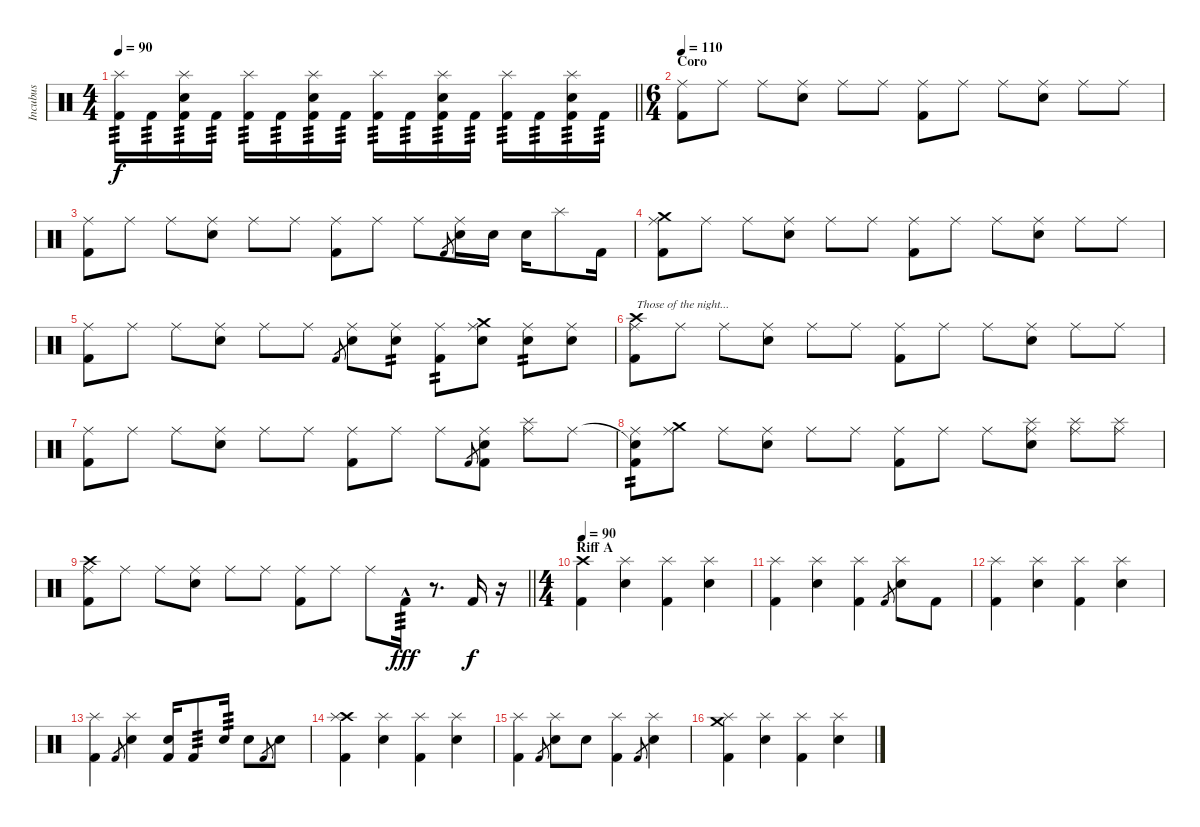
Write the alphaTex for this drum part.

\track ("Incubus" "Incubus") {instrument percussion}
\staff {score}
\articulation defaults
\ts (4 4)
\tempo 90
\clef neutral
\barLineRight lightlight
\ks c
("Splash (hit)" "Kick (hit) 2").16{tp 3 dy f} "Kick (hit) 2".16{tp 3} ("Splash (hit)" "Snare (hit) 2" "Kick (hit) 2").16{tp 3} "Kick (hit) 2".16{tp 3} ("Splash (hit)" "Kick (hit) 2").16{tp 3} "Kick (hit) 2".16{tp 3} ("Splash (hit)" "Snare (hit) 2" "Kick (hit) 2").16{tp 3} "Kick (hit) 2".16{tp 3} ("Splash (hit)" "Kick (hit) 2").16{tp 3} "Kick (hit) 2".16{tp 3} ("Splash (hit)" "Snare (hit) 2" "Kick (hit) 2").16{tp 3} "Kick (hit) 2".16{tp 3} ("Splash (hit)" "Kick (hit) 2").16{tp 3} "Kick (hit) 2".16{tp 3} ("Splash (hit)" "Snare (hit) 2" "Kick (hit) 2").16{tp 3} "Kick (hit) 2".16{tp 3} |
\ts (6 4)
\section ("" "Coro")
\tempo 110
("Ride (middle)" "Kick (hit) 2").8 "Ride (middle)".8 "Ride (middle)".8 ("Ride (middle)" "Snare (hit) 2").8 "Ride (middle)".8 "Ride (middle)".8 ("Ride (middle)" "Kick (hit) 2").8 "Ride (middle)".8 "Ride (middle)".8 ("Ride (middle)" "Snare (hit) 2").8 "Ride (middle)".8 "Ride (middle)".8 |
("Ride (middle)" "Kick (hit) 2").8 "Ride (middle)".8 "Ride (middle)".8 ("Ride (middle)" "Snare (hit) 2").8 "Ride (middle)".8 "Ride (middle)".8 ("Ride (middle)" "Kick (hit) 2").8 "Ride (middle)".8 "Ride (middle)".8 "Kick (hit) 2".8{gr} ("Ride (middle)" "Snare (hit) 2").16 "Snare (hit) 2".16 "Snare (hit) 2".16 "Splash (hit)".8 "Kick (hit) 2".16 |
("Crash medium (hit)" "Ride (middle)" "Kick (hit) 2").8 "Ride (middle)".8 "Ride (middle)".8 ("Ride (middle)" "Snare (hit) 2").8 "Ride (middle)".8 "Ride (middle)".8 ("Ride (middle)" "Kick (hit) 2").8 "Ride (middle)".8 "Ride (middle)".8 ("Ride (middle)" "Snare (hit) 2").8 "Ride (middle)".8 "Ride (middle)".8 |
("Ride (middle)" "Kick (hit) 2").8 "Ride (middle)".8 "Ride (middle)".8 ("Ride (middle)" "Snare (hit) 2").8 "Ride (middle)".8 "Ride (middle)".8 "Kick (hit) 2".8{gr} ("Ride (middle)" "Snare (hit) 2").8 ("Ride (middle)" "Snare (hit) 2").8{tp 2} ("Ride (middle)" "Kick (hit) 2").8{tp 2} ("Crash medium (hit)" "Ride (middle)" "Snare (hit) 2").8 ("Ride (middle)" "Snare (hit) 2").8{tp 2} ("Ride (middle)" "Snare (hit) 2").8 |
("Crash high (hit)" "Ride (middle)" "Kick (hit) 2").8{txt "Those of the night..."} "Ride (middle)".8 "Ride (middle)".8 ("Ride (middle)" "Snare (hit) 2").8 "Ride (middle)".8 "Ride (middle)".8 ("Ride (middle)" "Kick (hit) 2").8 "Ride (middle)".8 "Ride (middle)".8 ("Ride (middle)" "Snare (hit) 2").8 "Ride (middle)".8 "Ride (middle)".8 |
("Ride (middle)" "Kick (hit) 2").8 "Ride (middle)".8 "Ride (middle)".8 ("Ride (middle)" "Snare (hit) 2").8 "Ride (middle)".8 "Ride (middle)".8 ("Ride (middle)" "Kick (hit) 2").8 "Ride (middle)".8 "Ride (middle)".8 "Kick (hit) 2".8{gr} ("Ride (middle)" "Snare (hit) 2" "Kick (hit) 2").8 ("Splash (hit)" "Ride (middle)").8 "Ride (middle)".8 |
("Snare (hit)"{t} "Ride (middle)" "Kick (hit) 2").8{tp 2} ("Crash medium (hit)" "Ride (middle)").8 "Ride (middle)".8 ("Ride (middle)" "Snare (hit) 2").8 "Ride (middle)".8 "Ride (middle)".8 ("Ride (middle)" "Kick (hit) 2").8 "Ride (middle)".8 "Ride (middle)".8 ("Splash (hit)" "Ride (middle)" "Snare (hit) 2").8 ("Splash (hit)" "Ride (middle)").8 ("Splash (hit)" "Ride (middle)").8 |
\barLineRight lightlight
("Crash high (hit)" "Ride (middle)" "Kick (hit) 2").8 "Ride (middle)".8 "Ride (middle)".8 ("Ride (middle)" "Snare (hit) 2").8 "Ride (middle)".8 "Ride (middle)".8 ("Ride (middle)" "Kick (hit) 2").8 "Ride (middle)".8 "Ride (middle)".8 "Kick (hit) 2"{hac}.16{tp 3 dy fff} r.8{d} "Kick (hit) 2".16{dy f} r.16 |
\ts (4 4)
\section ("" "Riff A")
\tempo 90
("Crash high (hit)" "Kick (hit) 2").4 ("Splash (hit)" "Snare (hit) 2").4 ("Splash (hit)" "Kick (hit) 2").4 ("Splash (hit)" "Snare (hit) 2").4 |
("Splash (hit)" "Kick (hit) 2").4 ("Splash (hit)" "Snare (hit) 2").4 ("Splash (hit)" "Kick (hit) 2").4 "Kick (hit) 2".8{gr} ("Splash (hit)" "Snare (hit) 2").8 "Kick (hit) 2".8 |
("Splash (hit)" "Kick (hit) 2").4 ("Splash (hit)" "Snare (hit) 2").4 ("Splash (hit)" "Kick (hit) 2").4 ("Splash (hit)" "Snare (hit) 2").4 |
("Splash (hit)" "Kick (hit) 2").4 "Kick (hit) 2".8{gr} ("Splash (hit)" "Snare (hit) 2").4 ("Snare (hit) 2" "Kick (hit) 2").16 "Kick (hit) 2".8{tp 3} "Snare (hit) 2".16{tp 3} "Snare (hit) 2".8 "Kick (hit) 2".8{gr} "Snare (hit) 2".8 |
("Crash high (hit)" "Splash (hit)" "Kick (hit) 2").4 ("Splash (hit)" "Snare (hit) 2").4 ("Splash (hit)" "Kick (hit) 2").4 ("Splash (hit)" "Snare (hit) 2").4 |
("Splash (hit)" "Kick (hit) 2").4 "Kick (hit) 2".8{gr} ("Splash (hit)" "Snare (hit) 2").8 "Snare (hit) 2".8 ("Splash (hit)" "Kick (hit) 2").4 "Kick (hit) 2".8{gr} ("Splash (hit)" "Snare (hit) 2").4 |
("Crash medium (hit)" "Splash (hit)" "Kick (hit) 2").4 ("Splash (hit)" "Snare (hit) 2").4 ("Splash (hit)" "Kick (hit) 2").4 ("Splash (hit)" "Snare (hit) 2").4
